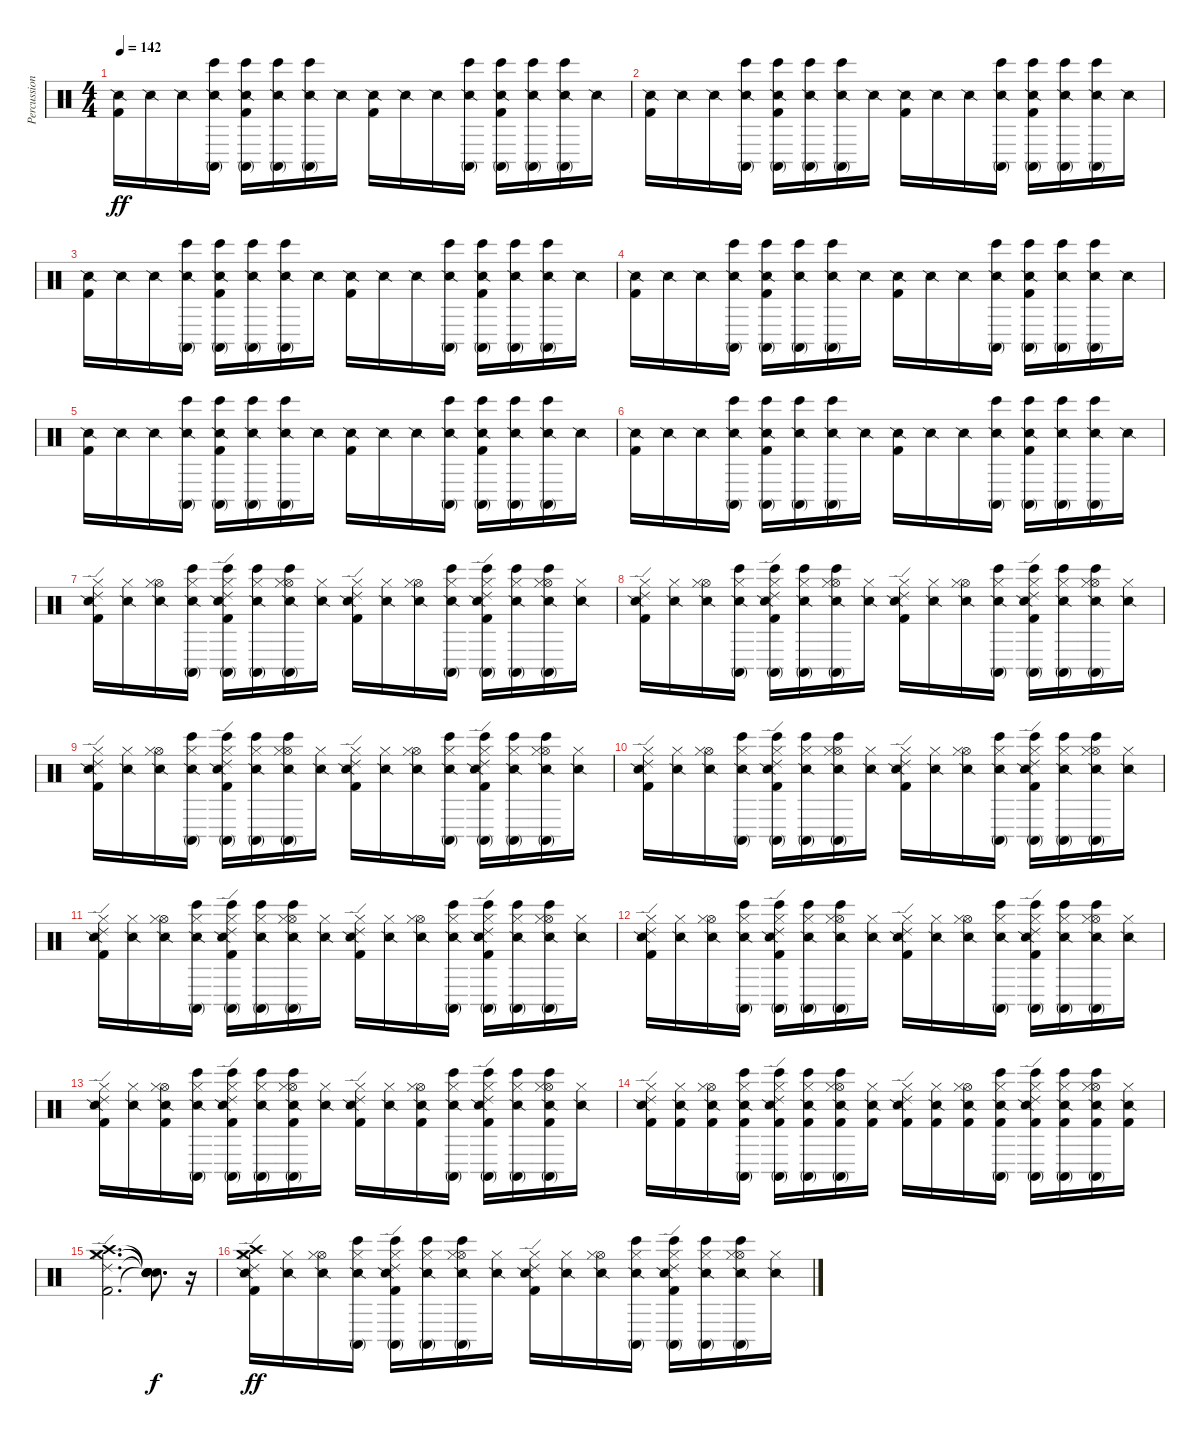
\track ("Percussion" "Percussion") {instrument percussion}
\staff {score}
\articulation defaults
\ts (4 4)
\tempo 142
\clef neutral
\ks c
("Snare (side stick) 2" "Kick (hit) 2").16{dy ff} "Snare (side stick) 2".16 "Snare (side stick) 2".16 ("Conga high (mute)" "Bongo High (hit)" "Snare (side stick) 2").16 ("Conga high (mute)" "Bongo High (hit)" "Snare (side stick) 2" "Kick (hit) 2").16 ("Conga high (mute)" "Bongo High (hit)" "Snare (side stick) 2").16 ("Conga high (mute)" "Bongo High (hit)" "Snare (side stick) 2").16 "Snare (side stick) 2".16 ("Snare (side stick) 2" "Kick (hit) 2").16 "Snare (side stick) 2".16 "Snare (side stick) 2".16 ("Conga high (mute)" "Bongo High (hit)" "Snare (side stick) 2").16 ("Conga high (mute)" "Bongo High (hit)" "Snare (side stick) 2" "Kick (hit) 2").16 ("Conga high (mute)" "Bongo High (hit)" "Snare (side stick) 2").16 ("Conga high (mute)" "Bongo High (hit)" "Snare (side stick) 2").16 "Snare (side stick) 2".16 |
("Snare (side stick) 2" "Kick (hit) 2").16 "Snare (side stick) 2".16 "Snare (side stick) 2".16 ("Conga high (mute)" "Bongo High (hit)" "Snare (side stick) 2").16 ("Conga high (mute)" "Bongo High (hit)" "Snare (side stick) 2" "Kick (hit) 2").16 ("Conga high (mute)" "Bongo High (hit)" "Snare (side stick) 2").16 ("Conga high (mute)" "Bongo High (hit)" "Snare (side stick) 2").16 "Snare (side stick) 2".16 ("Snare (side stick) 2" "Kick (hit) 2").16 "Snare (side stick) 2".16 "Snare (side stick) 2".16 ("Conga high (mute)" "Bongo High (hit)" "Snare (side stick) 2").16 ("Conga high (mute)" "Bongo High (hit)" "Snare (side stick) 2" "Kick (hit) 2").16 ("Conga high (mute)" "Bongo High (hit)" "Snare (side stick) 2").16 ("Conga high (mute)" "Bongo High (hit)" "Snare (side stick) 2").16 "Snare (side stick) 2".16 |
("Snare (side stick) 2" "Kick (hit) 2").16 "Snare (side stick) 2".16 "Snare (side stick) 2".16 ("Conga high (mute)" "Bongo High (hit)" "Snare (side stick) 2").16 ("Conga high (mute)" "Bongo High (hit)" "Snare (side stick) 2" "Kick (hit) 2").16 ("Conga high (mute)" "Bongo High (hit)" "Snare (side stick) 2").16 ("Conga high (mute)" "Bongo High (hit)" "Snare (side stick) 2").16 "Snare (side stick) 2".16 ("Snare (side stick) 2" "Kick (hit) 2").16 "Snare (side stick) 2".16 "Snare (side stick) 2".16 ("Conga high (mute)" "Bongo High (hit)" "Snare (side stick) 2").16 ("Conga high (mute)" "Bongo High (hit)" "Snare (side stick) 2" "Kick (hit) 2").16 ("Conga high (mute)" "Bongo High (hit)" "Snare (side stick) 2").16 ("Conga high (mute)" "Bongo High (hit)" "Snare (side stick) 2").16 "Snare (side stick) 2".16 |
("Snare (side stick) 2" "Kick (hit) 2").16 "Snare (side stick) 2".16 "Snare (side stick) 2".16 ("Conga high (mute)" "Bongo High (hit)" "Snare (side stick) 2").16 ("Conga high (mute)" "Bongo High (hit)" "Snare (side stick) 2" "Kick (hit) 2").16 ("Conga high (mute)" "Bongo High (hit)" "Snare (side stick) 2").16 ("Conga high (mute)" "Bongo High (hit)" "Snare (side stick) 2").16 "Snare (side stick) 2".16 ("Snare (side stick) 2" "Kick (hit) 2").16 "Snare (side stick) 2".16 "Snare (side stick) 2".16 ("Conga high (mute)" "Bongo High (hit)" "Snare (side stick) 2").16 ("Conga high (mute)" "Bongo High (hit)" "Snare (side stick) 2" "Kick (hit) 2").16 ("Conga high (mute)" "Bongo High (hit)" "Snare (side stick) 2").16 ("Conga high (mute)" "Bongo High (hit)" "Snare (side stick) 2").16 "Snare (side stick) 2".16 |
("Snare (side stick) 2" "Kick (hit) 2").16 "Snare (side stick) 2".16 "Snare (side stick) 2".16 ("Conga high (mute)" "Bongo High (hit)" "Snare (side stick) 2").16 ("Conga high (mute)" "Bongo High (hit)" "Snare (side stick) 2" "Kick (hit) 2").16 ("Conga high (mute)" "Bongo High (hit)" "Snare (side stick) 2").16 ("Conga high (mute)" "Bongo High (hit)" "Snare (side stick) 2").16 "Snare (side stick) 2".16 ("Snare (side stick) 2" "Kick (hit) 2").16 "Snare (side stick) 2".16 "Snare (side stick) 2".16 ("Conga high (mute)" "Bongo High (hit)" "Snare (side stick) 2").16 ("Conga high (mute)" "Bongo High (hit)" "Snare (side stick) 2" "Kick (hit) 2").16 ("Conga high (mute)" "Bongo High (hit)" "Snare (side stick) 2").16 ("Conga high (mute)" "Bongo High (hit)" "Snare (side stick) 2").16 "Snare (side stick) 2".16 |
("Snare (side stick) 2" "Kick (hit) 2").16 "Snare (side stick) 2".16 "Snare (side stick) 2".16 ("Conga high (mute)" "Bongo High (hit)" "Snare (side stick) 2").16 ("Conga high (mute)" "Bongo High (hit)" "Snare (side stick) 2" "Kick (hit) 2").16 ("Conga high (mute)" "Bongo High (hit)" "Snare (side stick) 2").16 ("Conga high (mute)" "Bongo High (hit)" "Snare (side stick) 2").16 "Snare (side stick) 2".16 ("Snare (side stick) 2" "Kick (hit) 2").16 "Snare (side stick) 2".16 "Snare (side stick) 2".16 ("Conga high (mute)" "Bongo High (hit)" "Snare (side stick) 2").16 ("Conga high (mute)" "Bongo High (hit)" "Snare (side stick) 2" "Kick (hit) 2").16 ("Conga high (mute)" "Bongo High (hit)" "Snare (side stick) 2").16 ("Conga high (mute)" "Bongo High (hit)" "Snare (side stick) 2").16 "Snare (side stick) 2".16 |
("Ride (edge) 2" "Hi-Hat (closed)" "Snare (side stick) 2" "Kick (hit) 2").16 ("Hi-Hat (closed)" "Snare (side stick) 2").16 ("Hi-Hat (open)" "Hi-Hat (closed)" "Snare (side stick) 2").16 ("Conga high (mute)" "Bongo High (hit)" "Hi-Hat (closed)" "Snare (side stick) 2").16 ("Conga high (mute)" "Bongo High (hit)" "Ride (edge) 2" "Hi-Hat (closed)" "Snare (side stick) 2" "Kick (hit) 2").16 ("Conga high (mute)" "Bongo High (hit)" "Hi-Hat (closed)" "Snare (side stick) 2").16 ("Conga high (mute)" "Bongo High (hit)" "Hi-Hat (open)" "Hi-Hat (closed)" "Snare (side stick) 2").16 ("Hi-Hat (closed)" "Snare (side stick) 2").16 ("Ride (edge) 2" "Hi-Hat (closed)" "Snare (side stick) 2" "Kick (hit) 2").16 ("Hi-Hat (closed)" "Snare (side stick) 2").16 ("Hi-Hat (open)" "Hi-Hat (closed)" "Snare (side stick) 2").16 ("Conga high (mute)" "Bongo High (hit)" "Hi-Hat (closed)" "Snare (side stick) 2").16 ("Conga high (mute)" "Bongo High (hit)" "Ride (edge) 2" "Hi-Hat (closed)" "Snare (side stick) 2" "Kick (hit) 2").16 ("Conga high (mute)" "Bongo High (hit)" "Hi-Hat (closed)" "Snare (side stick) 2").16 ("Conga high (mute)" "Bongo High (hit)" "Hi-Hat (open)" "Hi-Hat (closed)" "Snare (side stick) 2").16 ("Hi-Hat (closed)" "Snare (side stick) 2").16 |
("Ride (edge) 2" "Hi-Hat (closed)" "Snare (side stick) 2" "Kick (hit) 2").16 ("Hi-Hat (closed)" "Snare (side stick) 2").16 ("Hi-Hat (open)" "Hi-Hat (closed)" "Snare (side stick) 2").16 ("Conga high (mute)" "Bongo High (hit)" "Hi-Hat (closed)" "Snare (side stick) 2").16 ("Conga high (mute)" "Bongo High (hit)" "Ride (edge) 2" "Hi-Hat (closed)" "Snare (side stick) 2" "Kick (hit) 2").16 ("Conga high (mute)" "Bongo High (hit)" "Hi-Hat (closed)" "Snare (side stick) 2").16 ("Conga high (mute)" "Bongo High (hit)" "Hi-Hat (open)" "Hi-Hat (closed)" "Snare (side stick) 2").16 ("Hi-Hat (closed)" "Snare (side stick) 2").16 ("Ride (edge) 2" "Hi-Hat (closed)" "Snare (side stick) 2" "Kick (hit) 2").16 ("Hi-Hat (closed)" "Snare (side stick) 2").16 ("Hi-Hat (open)" "Hi-Hat (closed)" "Snare (side stick) 2").16 ("Conga high (mute)" "Bongo High (hit)" "Hi-Hat (closed)" "Snare (side stick) 2").16 ("Conga high (mute)" "Bongo High (hit)" "Ride (edge) 2" "Hi-Hat (closed)" "Snare (side stick) 2" "Kick (hit) 2").16 ("Conga high (mute)" "Bongo High (hit)" "Hi-Hat (closed)" "Snare (side stick) 2").16 ("Conga high (mute)" "Bongo High (hit)" "Hi-Hat (open)" "Hi-Hat (closed)" "Snare (side stick) 2").16 ("Hi-Hat (closed)" "Snare (side stick) 2").16 |
("Ride (edge) 2" "Hi-Hat (closed)" "Snare (side stick) 2" "Kick (hit) 2").16 ("Hi-Hat (closed)" "Snare (side stick) 2").16 ("Hi-Hat (open)" "Hi-Hat (closed)" "Snare (side stick) 2").16 ("Conga high (mute)" "Bongo High (hit)" "Hi-Hat (closed)" "Snare (side stick) 2").16 ("Conga high (mute)" "Bongo High (hit)" "Ride (edge) 2" "Hi-Hat (closed)" "Snare (side stick) 2" "Kick (hit) 2").16 ("Conga high (mute)" "Bongo High (hit)" "Hi-Hat (closed)" "Snare (side stick) 2").16 ("Conga high (mute)" "Bongo High (hit)" "Hi-Hat (open)" "Hi-Hat (closed)" "Snare (side stick) 2").16 ("Hi-Hat (closed)" "Snare (side stick) 2").16 ("Ride (edge) 2" "Hi-Hat (closed)" "Snare (side stick) 2" "Kick (hit) 2").16 ("Hi-Hat (closed)" "Snare (side stick) 2").16 ("Hi-Hat (open)" "Hi-Hat (closed)" "Snare (side stick) 2").16 ("Conga high (mute)" "Bongo High (hit)" "Hi-Hat (closed)" "Snare (side stick) 2").16 ("Conga high (mute)" "Bongo High (hit)" "Ride (edge) 2" "Hi-Hat (closed)" "Snare (side stick) 2" "Kick (hit) 2").16 ("Conga high (mute)" "Bongo High (hit)" "Hi-Hat (closed)" "Snare (side stick) 2").16 ("Conga high (mute)" "Bongo High (hit)" "Hi-Hat (open)" "Hi-Hat (closed)" "Snare (side stick) 2").16 ("Hi-Hat (closed)" "Snare (side stick) 2").16 |
("Ride (edge) 2" "Hi-Hat (closed)" "Snare (side stick) 2" "Kick (hit) 2").16 ("Hi-Hat (closed)" "Snare (side stick) 2").16 ("Hi-Hat (open)" "Hi-Hat (closed)" "Snare (side stick) 2").16 ("Conga high (mute)" "Bongo High (hit)" "Hi-Hat (closed)" "Snare (side stick) 2").16 ("Conga high (mute)" "Bongo High (hit)" "Ride (edge) 2" "Hi-Hat (closed)" "Snare (side stick) 2" "Kick (hit) 2").16 ("Conga high (mute)" "Bongo High (hit)" "Hi-Hat (closed)" "Snare (side stick) 2").16 ("Conga high (mute)" "Bongo High (hit)" "Hi-Hat (open)" "Hi-Hat (closed)" "Snare (side stick) 2").16 ("Hi-Hat (closed)" "Snare (side stick) 2").16 ("Ride (edge) 2" "Hi-Hat (closed)" "Snare (side stick) 2" "Kick (hit) 2").16 ("Hi-Hat (closed)" "Snare (side stick) 2").16 ("Hi-Hat (open)" "Hi-Hat (closed)" "Snare (side stick) 2").16 ("Conga high (mute)" "Bongo High (hit)" "Hi-Hat (closed)" "Snare (side stick) 2").16 ("Conga high (mute)" "Bongo High (hit)" "Ride (edge) 2" "Hi-Hat (closed)" "Snare (side stick) 2" "Kick (hit) 2").16 ("Conga high (mute)" "Bongo High (hit)" "Hi-Hat (closed)" "Snare (side stick) 2").16 ("Conga high (mute)" "Bongo High (hit)" "Hi-Hat (open)" "Hi-Hat (closed)" "Snare (side stick) 2").16 ("Hi-Hat (closed)" "Snare (side stick) 2").16 |
("Ride (edge) 2" "Hi-Hat (closed)" "Snare (side stick) 2" "Kick (hit) 2").16 ("Hi-Hat (closed)" "Snare (side stick) 2").16 ("Hi-Hat (open)" "Hi-Hat (closed)" "Snare (side stick) 2").16 ("Conga high (mute)" "Bongo High (hit)" "Hi-Hat (closed)" "Snare (side stick) 2").16 ("Conga high (mute)" "Bongo High (hit)" "Ride (edge) 2" "Hi-Hat (closed)" "Snare (side stick) 2" "Kick (hit) 2").16 ("Conga high (mute)" "Bongo High (hit)" "Hi-Hat (closed)" "Snare (side stick) 2").16 ("Conga high (mute)" "Bongo High (hit)" "Hi-Hat (open)" "Hi-Hat (closed)" "Snare (side stick) 2").16 ("Hi-Hat (closed)" "Snare (side stick) 2").16 ("Ride (edge) 2" "Hi-Hat (closed)" "Snare (side stick) 2" "Kick (hit) 2").16 ("Hi-Hat (closed)" "Snare (side stick) 2").16 ("Hi-Hat (open)" "Hi-Hat (closed)" "Snare (side stick) 2").16 ("Conga high (mute)" "Bongo High (hit)" "Hi-Hat (closed)" "Snare (side stick) 2").16 ("Conga high (mute)" "Bongo High (hit)" "Ride (edge) 2" "Hi-Hat (closed)" "Snare (side stick) 2" "Kick (hit) 2").16 ("Conga high (mute)" "Bongo High (hit)" "Hi-Hat (closed)" "Snare (side stick) 2").16 ("Conga high (mute)" "Bongo High (hit)" "Hi-Hat (open)" "Hi-Hat (closed)" "Snare (side stick) 2").16 ("Hi-Hat (closed)" "Snare (side stick) 2").16 |
("Ride (edge) 2" "Hi-Hat (closed)" "Snare (side stick) 2" "Kick (hit) 2").16 ("Hi-Hat (closed)" "Snare (side stick) 2").16 ("Hi-Hat (open)" "Hi-Hat (closed)" "Snare (side stick) 2").16 ("Conga high (mute)" "Bongo High (hit)" "Hi-Hat (closed)" "Snare (side stick) 2").16 ("Conga high (mute)" "Bongo High (hit)" "Ride (edge) 2" "Hi-Hat (closed)" "Snare (side stick) 2" "Kick (hit) 2").16 ("Conga high (mute)" "Bongo High (hit)" "Hi-Hat (closed)" "Snare (side stick) 2").16 ("Conga high (mute)" "Bongo High (hit)" "Hi-Hat (open)" "Hi-Hat (closed)" "Snare (side stick) 2").16 ("Hi-Hat (closed)" "Snare (side stick) 2").16 ("Ride (edge) 2" "Hi-Hat (closed)" "Snare (side stick) 2" "Kick (hit) 2").16 ("Hi-Hat (closed)" "Snare (side stick) 2").16 ("Hi-Hat (open)" "Hi-Hat (closed)" "Snare (side stick) 2").16 ("Conga high (mute)" "Bongo High (hit)" "Hi-Hat (closed)" "Snare (side stick) 2").16 ("Conga high (mute)" "Bongo High (hit)" "Ride (edge) 2" "Hi-Hat (closed)" "Snare (side stick) 2" "Kick (hit) 2").16 ("Conga high (mute)" "Bongo High (hit)" "Hi-Hat (closed)" "Snare (side stick) 2").16 ("Conga high (mute)" "Bongo High (hit)" "Hi-Hat (open)" "Hi-Hat (closed)" "Snare (side stick) 2").16 ("Hi-Hat (closed)" "Snare (side stick) 2").16 |
("Ride (edge) 2" "Hi-Hat (closed)" "Snare (side stick) 2" "Kick (hit) 2").16 ("Hi-Hat (closed)" "Snare (side stick) 2").16 ("Hi-Hat (open)" "Hi-Hat (closed)" "Snare (side stick) 2" "Kick (hit) 2").16 ("Conga high (mute)" "Bongo High (hit)" "Hi-Hat (closed)" "Snare (side stick) 2").16 ("Conga high (mute)" "Bongo High (hit)" "Ride (edge) 2" "Hi-Hat (closed)" "Snare (side stick) 2" "Kick (hit) 2").16 ("Conga high (mute)" "Bongo High (hit)" "Hi-Hat (closed)" "Snare (side stick) 2").16 ("Conga high (mute)" "Bongo High (hit)" "Hi-Hat (open)" "Hi-Hat (closed)" "Snare (side stick) 2" "Kick (hit) 2").16 ("Hi-Hat (closed)" "Snare (side stick) 2").16 ("Ride (edge) 2" "Hi-Hat (closed)" "Snare (side stick) 2" "Kick (hit) 2").16 ("Hi-Hat (closed)" "Snare (side stick) 2").16 ("Hi-Hat (open)" "Hi-Hat (closed)" "Snare (side stick) 2" "Kick (hit) 2").16 ("Conga high (mute)" "Bongo High (hit)" "Hi-Hat (closed)" "Snare (side stick) 2").16 ("Conga high (mute)" "Bongo High (hit)" "Ride (edge) 2" "Hi-Hat (closed)" "Snare (side stick) 2" "Kick (hit) 2").16 ("Conga high (mute)" "Bongo High (hit)" "Hi-Hat (closed)" "Snare (side stick) 2").16 ("Conga high (mute)" "Bongo High (hit)" "Hi-Hat (open)" "Hi-Hat (closed)" "Snare (side stick) 2" "Kick (hit) 2").16 ("Hi-Hat (closed)" "Snare (side stick) 2").16 |
("Ride (edge) 2" "Hi-Hat (closed)" "Snare (side stick) 2" "Kick (hit) 2").16 ("Hi-Hat (closed)" "Snare (side stick) 2" "Kick (hit) 2").16 ("Hi-Hat (open)" "Hi-Hat (closed)" "Snare (side stick) 2" "Kick (hit) 2").16 ("Conga high (mute)" "Bongo High (hit)" "Hi-Hat (closed)" "Snare (side stick) 2" "Kick (hit) 2").16 ("Conga high (mute)" "Bongo High (hit)" "Ride (edge) 2" "Hi-Hat (closed)" "Snare (side stick) 2" "Kick (hit) 2").16 ("Conga high (mute)" "Bongo High (hit)" "Hi-Hat (closed)" "Snare (side stick) 2" "Kick (hit) 2").16 ("Conga high (mute)" "Bongo High (hit)" "Hi-Hat (open)" "Hi-Hat (closed)" "Snare (side stick) 2" "Kick (hit) 2").16 ("Hi-Hat (closed)" "Snare (side stick) 2" "Kick (hit) 2").16 ("Ride (edge) 2" "Hi-Hat (closed)" "Snare (side stick) 2" "Kick (hit) 2").16 ("Hi-Hat (closed)" "Snare (side stick) 2" "Kick (hit) 2").16 ("Hi-Hat (open)" "Hi-Hat (closed)" "Snare (side stick) 2" "Kick (hit) 2").16 ("Conga high (mute)" "Bongo High (hit)" "Hi-Hat (closed)" "Snare (side stick) 2" "Kick (hit) 2").16 ("Conga high (mute)" "Bongo High (hit)" "Ride (edge) 2" "Hi-Hat (closed)" "Snare (side stick) 2" "Kick (hit) 2").16 ("Conga high (mute)" "Bongo High (hit)" "Hi-Hat (closed)" "Snare (side stick) 2" "Kick (hit) 2").16 ("Conga high (mute)" "Bongo High (hit)" "Hi-Hat (open)" "Hi-Hat (closed)" "Snare (side stick) 2" "Kick (hit) 2").16 ("Hi-Hat (closed)" "Snare (side stick) 2" "Kick (hit) 2").16 |
("Ride (edge) 2" "Crash medium (hit)" "Crash high (hit)" "Hi-Hat (closed)" "Kick (hit) 2").2{d} ("Snare (hit)"{t} "Snare (hit)"{t} "Snare (hit)"{t} "Snare (hit)"{t} "Snare (hit)"{t}).8{d dy f} r.16 |
("Ride (edge) 2" "Crash medium (hit)" "Crash high (hit)" "Hi-Hat (closed)" "Snare (side stick) 2" "Kick (hit) 2").16{dy ff} ("Hi-Hat (closed)" "Snare (side stick) 2").16 ("Hi-Hat (open)" "Hi-Hat (closed)" "Snare (side stick) 2").16 ("Conga high (mute)" "Bongo High (hit)" "Hi-Hat (closed)" "Snare (side stick) 2").16 ("Conga high (mute)" "Bongo High (hit)" "Ride (edge) 2" "Hi-Hat (closed)" "Snare (side stick) 2" "Kick (hit) 2").16 ("Conga high (mute)" "Bongo High (hit)" "Hi-Hat (closed)" "Snare (side stick) 2").16 ("Conga high (mute)" "Bongo High (hit)" "Hi-Hat (open)" "Hi-Hat (closed)" "Snare (side stick) 2").16 ("Hi-Hat (closed)" "Snare (side stick) 2").16 ("Ride (edge) 2" "Hi-Hat (closed)" "Snare (side stick) 2" "Kick (hit) 2").16 ("Hi-Hat (closed)" "Snare (side stick) 2").16 ("Hi-Hat (open)" "Hi-Hat (closed)" "Snare (side stick) 2").16 ("Conga high (mute)" "Bongo High (hit)" "Hi-Hat (closed)" "Snare (side stick) 2").16 ("Conga high (mute)" "Bongo High (hit)" "Ride (edge) 2" "Hi-Hat (closed)" "Snare (side stick) 2" "Kick (hit) 2").16 ("Conga high (mute)" "Bongo High (hit)" "Hi-Hat (closed)" "Snare (side stick) 2").16 ("Conga high (mute)" "Bongo High (hit)" "Hi-Hat (open)" "Hi-Hat (closed)" "Snare (side stick) 2").16 ("Hi-Hat (closed)" "Snare (side stick) 2").16
